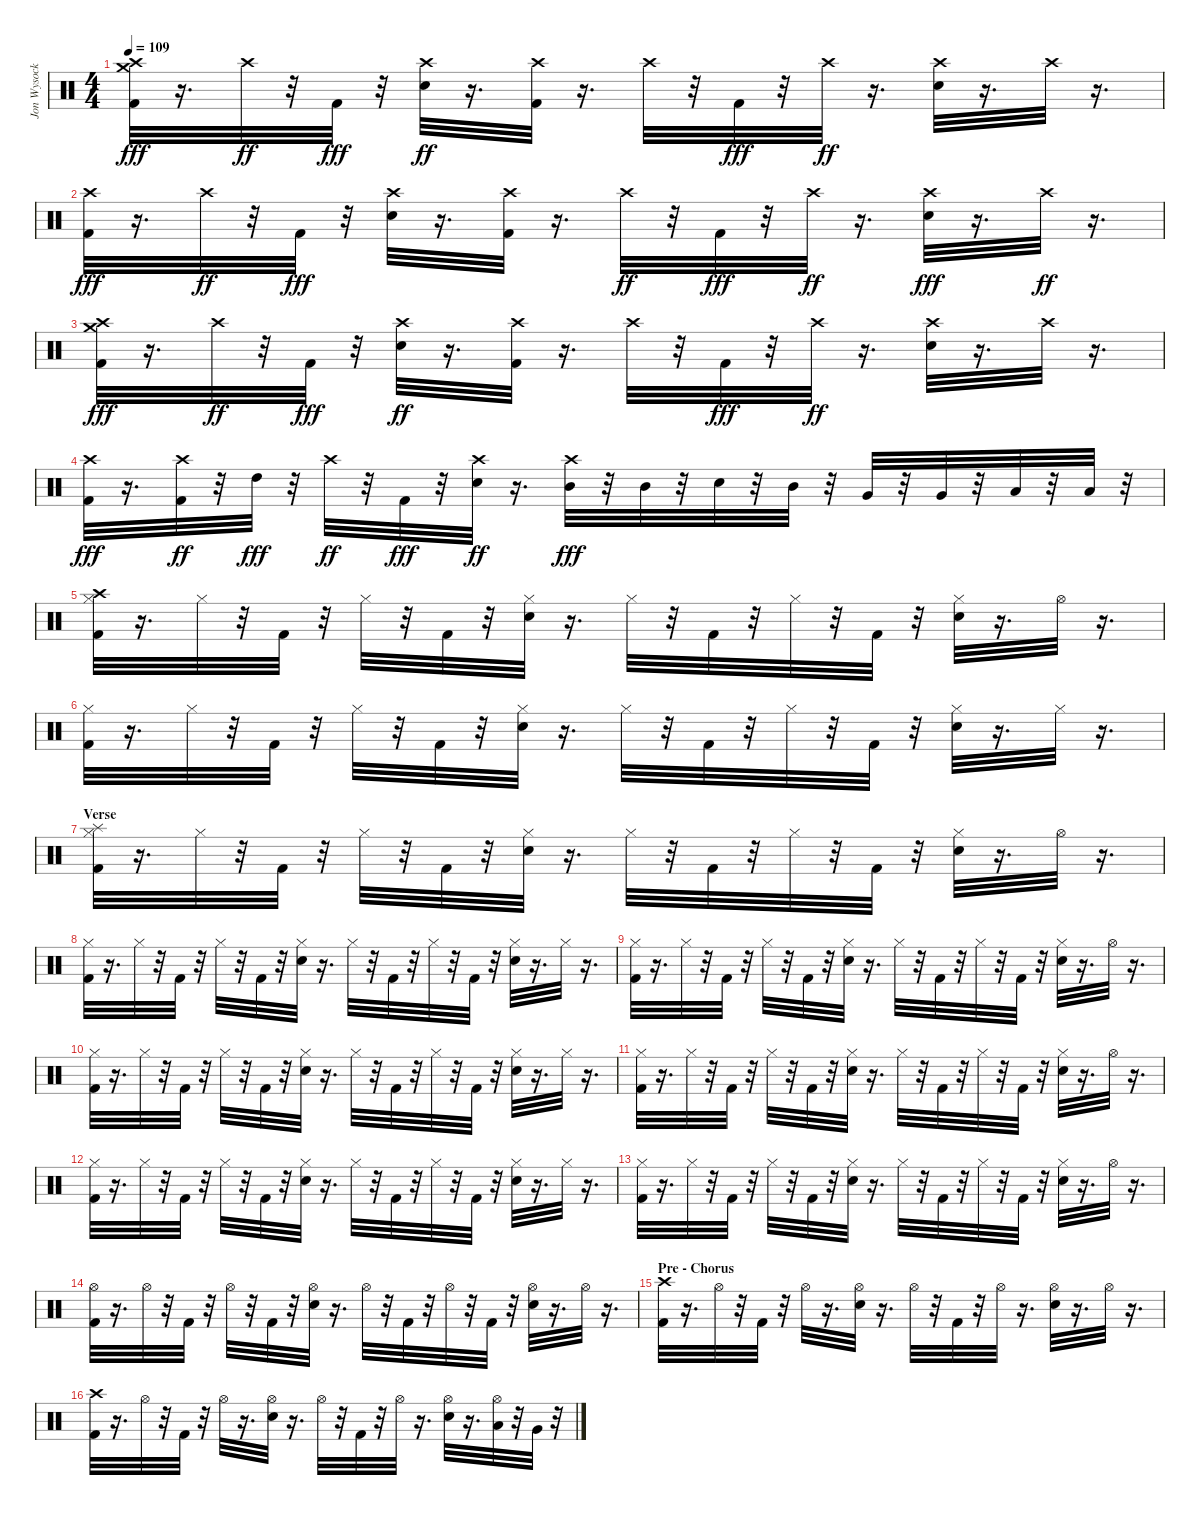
\track ("Jon Wysocki - Drums" "Jon Wysock") {instrument percussion}
\staff {score}
\articulation defaults
\ts (4 4)
\tempo 109
\clef neutral
\ks c
("Kick (hit) 2" "Crash high (hit)" "Crash medium (hit)").32{dy fff} r.16{d} "Crash high (hit)".32{dy ff} r.32 "Kick (hit) 2".32{dy fff} r.32 ("Electric Snare (hit)" "Crash high (hit)").32{dy ff} r.16{d} ("Kick (hit) 2" "Crash high (hit)").32 r.16{d} "Crash high (hit)".32 r.32 "Kick (hit) 2".32{dy fff} r.32 "Crash high (hit)".32{dy ff} r.16{d} ("Electric Snare (hit)" "Crash high (hit)").32 r.16{d} "Crash high (hit)".32 r.16{d} |
("Crash high (hit)" "Kick (hit) 2").32{dy fff} r.16{d} "Crash high (hit)".32{dy ff} r.32 "Kick (hit) 2".32{dy fff} r.32 ("Crash high (hit)" "Electric Snare (hit)").32 r.16{d} ("Crash high (hit)" "Kick (hit) 2").32 r.16{d} "Crash high (hit)".32{dy ff} r.32 "Kick (hit) 2".32{dy fff} r.32 "Crash high (hit)".32{dy ff} r.16{d} ("Crash high (hit)" "Electric Snare (hit)").32{dy fff} r.16{d} "Crash high (hit)".32{dy ff} r.16{d} |
("Kick (hit) 2" "Crash high (hit)" "Crash medium (hit)").32{dy fff} r.16{d} "Crash high (hit)".32{dy ff} r.32 "Kick (hit) 2".32{dy fff} r.32 ("Electric Snare (hit)" "Crash high (hit)").32{dy ff} r.16{d} ("Kick (hit) 2" "Crash high (hit)").32 r.16{d} "Crash high (hit)".32 r.32 "Kick (hit) 2".32{dy fff} r.32 "Crash high (hit)".32{dy ff} r.16{d} ("Electric Snare (hit)" "Crash high (hit)").32 r.16{d} "Crash high (hit)".32 r.16{d} |
("Crash high (hit)" "Kick (hit) 2").32{dy fff} r.16{d} ("Kick (hit) 2" "Crash high (hit)").32{dy ff} r.32 "High Tom (hit)".32{dy fff} r.32 "Crash high (hit)".32{dy ff} r.32 "Kick (hit) 2".32{dy fff} r.32 ("Electric Snare (hit)" "Crash high (hit)").32{dy ff} r.16{d} ("Crash high (hit)" "Mid Tom (hit)").32{dy fff} r.32 "Mid Tom (hit)".32 r.32 "Electric Snare (hit)".32 r.32 "Mid Tom (hit)".32 r.32 "Very Low Tom (hit)".32 r.32 "Very Low Tom (hit)".32 r.32 "Low Floor Tom (hit)".32 r.32 "Low Floor Tom (hit)".32 r.32 |
("Hi-Hat (closed)" "Kick (hit) 2" "Crash high (hit)").32 r.16{d} "Hi-Hat (closed)".32 r.32 "Kick (hit) 2".32 r.32 "Hi-Hat (closed)".32 r.32 "Kick (hit) 2".32 r.32 ("Hi-Hat (closed)" "Electric Snare (hit)").32 r.16{d} "Hi-Hat (closed)".32 r.32 "Kick (hit) 2".32 r.32 "Hi-Hat (closed)".32 r.32 "Kick (hit) 2".32 r.32 ("Hi-Hat (closed)" "Electric Snare (hit)").32 r.16{d} "Hi-Hat (open)".32 r.16{d} |
("Hi-Hat (closed)" "Kick (hit) 2").32 r.16{d} "Hi-Hat (closed)".32 r.32 "Kick (hit) 2".32 r.32 "Hi-Hat (closed)".32 r.32 "Kick (hit) 2".32 r.32 ("Hi-Hat (closed)" "Electric Snare (hit)").32 r.16{d} "Hi-Hat (closed)".32 r.32 "Kick (hit) 2".32 r.32 "Hi-Hat (closed)".32 r.32 "Kick (hit) 2".32 r.32 ("Hi-Hat (closed)" "Electric Snare (hit)").32 r.16{d} "Hi-Hat (closed)".32 r.16{d} |
\section ("" "Verse")
("Splash (hit)" "Kick (hit) 2" "Hi-Hat (closed)").32 r.16{d} "Hi-Hat (closed)".32 r.32 "Kick (hit) 2".32 r.32 "Hi-Hat (closed)".32 r.32 "Kick (hit) 2".32 r.32 ("Electric Snare (hit)" "Hi-Hat (closed)").32 r.16{d} "Hi-Hat (closed)".32 r.32 "Kick (hit) 2".32 r.32 "Hi-Hat (closed)".32 r.32 "Kick (hit) 2".32 r.32 ("Electric Snare (hit)" "Hi-Hat (closed)").32 r.16{d} "Hi-Hat (open)".32 r.16{d} |
("Kick (hit) 2" "Hi-Hat (closed)").32 r.16{d} "Hi-Hat (closed)".32 r.32 "Kick (hit) 2".32 r.32 "Hi-Hat (closed)".32 r.32 "Kick (hit) 2".32 r.32 ("Electric Snare (hit)" "Hi-Hat (closed)").32 r.16{d} "Hi-Hat (closed)".32 r.32 "Kick (hit) 2".32 r.32 "Hi-Hat (closed)".32 r.32 "Kick (hit) 2".32 r.32 ("Electric Snare (hit)" "Hi-Hat (closed)").32 r.16{d} "Hi-Hat (closed)".32 r.16{d} |
("Hi-Hat (closed)" "Kick (hit) 2").32 r.16{d} "Hi-Hat (closed)".32 r.32 "Kick (hit) 2".32 r.32 "Hi-Hat (closed)".32 r.32 "Kick (hit) 2".32 r.32 ("Hi-Hat (closed)" "Electric Snare (hit)").32 r.16{d} "Hi-Hat (closed)".32 r.32 "Kick (hit) 2".32 r.32 "Hi-Hat (closed)".32 r.32 "Kick (hit) 2".32 r.32 ("Hi-Hat (closed)" "Electric Snare (hit)").32 r.16{d} "Hi-Hat (open)".32 r.16{d} |
("Hi-Hat (closed)" "Kick (hit) 2").32 r.16{d} "Hi-Hat (closed)".32 r.32 "Kick (hit) 2".32 r.32 "Hi-Hat (closed)".32 r.32 "Kick (hit) 2".32 r.32 ("Hi-Hat (closed)" "Electric Snare (hit)").32 r.16{d} "Hi-Hat (closed)".32 r.32 "Kick (hit) 2".32 r.32 "Hi-Hat (closed)".32 r.32 "Kick (hit) 2".32 r.32 ("Hi-Hat (closed)" "Electric Snare (hit)").32 r.16{d} "Hi-Hat (closed)".32 r.16{d} |
("Hi-Hat (closed)" "Kick (hit) 2").32 r.16{d} "Hi-Hat (closed)".32 r.32 "Kick (hit) 2".32 r.32 "Hi-Hat (closed)".32 r.32 "Kick (hit) 2".32 r.32 ("Hi-Hat (closed)" "Electric Snare (hit)").32 r.16{d} "Hi-Hat (closed)".32 r.32 "Kick (hit) 2".32 r.32 "Hi-Hat (closed)".32 r.32 "Kick (hit) 2".32 r.32 ("Hi-Hat (closed)" "Electric Snare (hit)").32 r.16{d} "Hi-Hat (open)".32 r.16{d} |
("Hi-Hat (closed)" "Kick (hit) 2").32 r.16{d} "Hi-Hat (closed)".32 r.32 "Kick (hit) 2".32 r.32 "Hi-Hat (closed)".32 r.32 "Kick (hit) 2".32 r.32 ("Hi-Hat (closed)" "Electric Snare (hit)").32 r.16{d} "Hi-Hat (closed)".32 r.32 "Kick (hit) 2".32 r.32 "Hi-Hat (closed)".32 r.32 "Kick (hit) 2".32 r.32 ("Hi-Hat (closed)" "Electric Snare (hit)").32 r.16{d} "Hi-Hat (closed)".32 r.16{d} |
("Kick (hit) 2" "Hi-Hat (closed)").32 r.16{d} "Hi-Hat (closed)".32 r.32 "Kick (hit) 2".32 r.32 "Hi-Hat (closed)".32 r.32 "Kick (hit) 2".32 r.32 ("Electric Snare (hit)" "Hi-Hat (closed)").32 r.16{d} "Hi-Hat (closed)".32 r.32 "Kick (hit) 2".32 r.32 "Hi-Hat (closed)".32 r.32 "Kick (hit) 2".32 r.32 ("Electric Snare (hit)" "Hi-Hat (closed)").32 r.16{d} "Hi-Hat (open)".32 r.16{d} |
("Kick (hit) 2" "Hi-Hat (open)").32 r.16{d} "Hi-Hat (open)".32 r.32 "Kick (hit) 2".32 r.32 "Hi-Hat (open)".32 r.32 "Kick (hit) 2".32 r.32 ("Electric Snare (hit)" "Hi-Hat (open)").32 r.16{d} "Hi-Hat (open)".32 r.32 "Kick (hit) 2".32 r.32 "Hi-Hat (open)".32 r.32 "Kick (hit) 2".32 r.32 ("Electric Snare (hit)" "Hi-Hat (open)").32 r.16{d} "Hi-Hat (open)".32 r.16{d} |
\section ("" "Pre - Chorus")
("Kick (hit) 2" "Crash high (hit)").32 r.16{d} "Hi-Hat (open)".32 r.32 "Kick (hit) 2".32 r.32 "Hi-Hat (open)".32 r.16{d} ("Electric Snare (hit)" "Hi-Hat (open)").32 r.16{d} "Hi-Hat (open)".32 r.32 "Kick (hit) 2".32 r.32 "Hi-Hat (open)".32 r.16{d} ("Electric Snare (hit)" "Hi-Hat (open)").32 r.16{d} "Hi-Hat (open)".32 r.16{d} |
("Kick (hit) 2" "Crash high (hit)").32 r.16{d} "Hi-Hat (open)".32 r.32 "Kick (hit) 2".32 r.32 "Hi-Hat (open)".32 r.16{d} ("Electric Snare (hit)" "Hi-Hat (open)").32 r.16{d} "Hi-Hat (open)".32 r.32 "Kick (hit) 2".32 r.32 "Hi-Hat (open)".32 r.16{d} ("Electric Snare (hit)" "Hi-Hat (open)").32 r.16{d} ("Low Tom (hit)" "Hi-Hat (open)").32 r.32 "Very Low Tom (hit)".32 r.32
